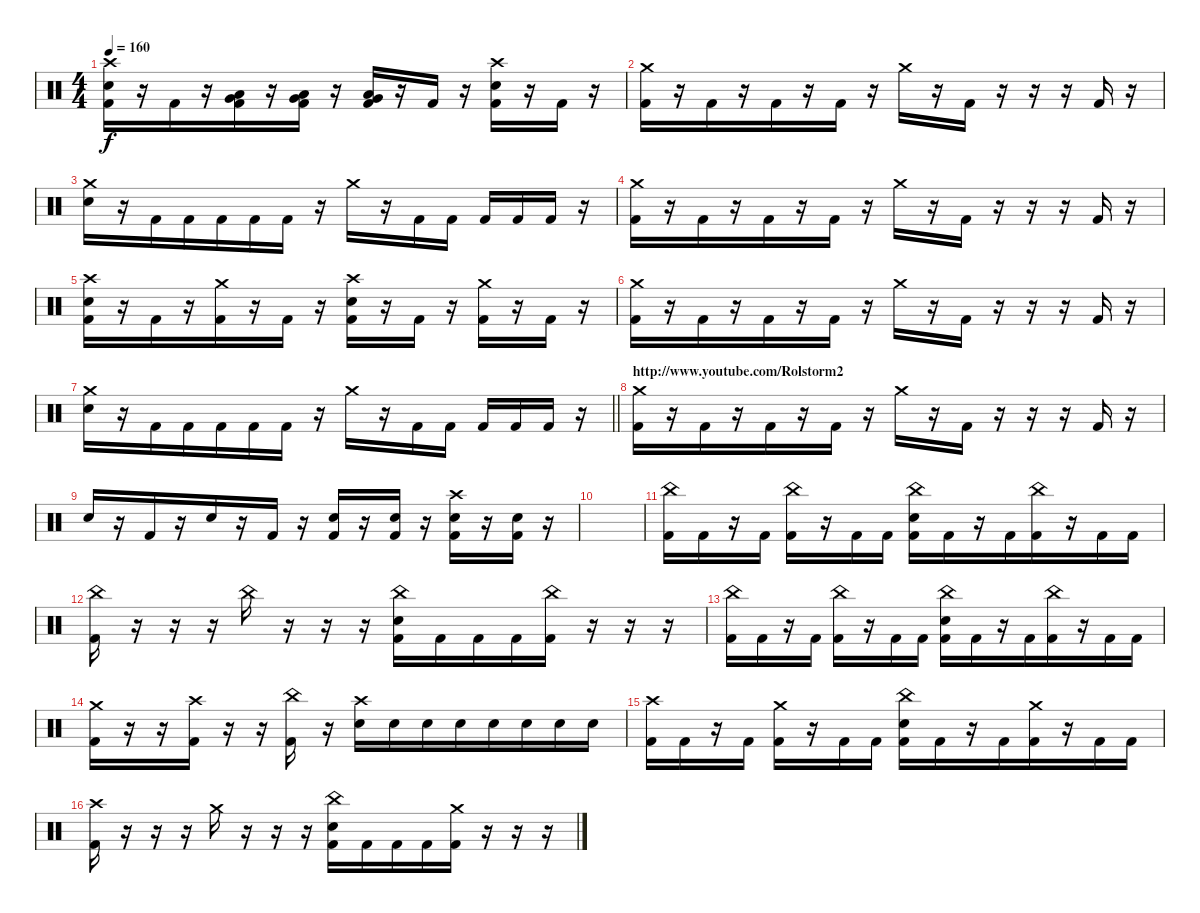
\track "" {instrument percussion}
\staff {score}
\articulation defaults
\ts (4 4)
\tempo 160
\clef neutral
\ks c
("Crash high (hit)" "Electric Snare (hit)" "Kick (hit) 2").16{dy f} r.16 "Kick (hit) 2".16{beam merge} r.16{beam merge} ("Very Low Tom (hit)" "Low Floor Tom (hit)" "Kick (hit) 2").16 r.16 ("Very Low Tom (hit)" "Low Floor Tom (hit)" "Kick (hit) 2").16 r.16 ("Very Low Tom (hit)" "Low Floor Tom (hit)" "Kick (hit) 2").16{beam merge} r.16 "Kick (hit) 2".16 r.16 ("Crash high (hit)" "Electric Snare (hit)" "Kick (hit) 2").16 r.16 "Kick (hit) 2".16 r.16 |
("Crash medium (hit)" "Kick (hit) 2").16 r.16 "Kick (hit) 2".16{beam merge} r.16{beam merge} "Kick (hit) 2".16 r.16 "Kick (hit) 2".16 r.16 "Crash medium (hit)".16{beam merge} r.16 "Kick (hit) 2".16 r.16 r.16 r.16 "Kick (hit) 2".16 r.16 |
("Crash medium (hit)" "Electric Snare (hit)").16 r.16 "Kick (hit) 2".16{beam merge} "Kick (hit) 2".16{beam merge} "Kick (hit) 2".16 "Kick (hit) 2".16 "Kick (hit) 2".16 r.16 "Crash medium (hit)".16{beam merge} r.16 "Kick (hit) 2".16 "Kick (hit) 2".16 "Kick (hit) 2".16 "Kick (hit) 2".16 "Kick (hit) 2".16 r.16 |
("Crash medium (hit)" "Kick (hit) 2").16 r.16 "Kick (hit) 2".16{beam merge} r.16{beam merge} "Kick (hit) 2".16 r.16 "Kick (hit) 2".16 r.16 "Crash medium (hit)".16{beam merge} r.16 "Kick (hit) 2".16 r.16 r.16 r.16 "Kick (hit) 2".16 r.16 |
("Crash high (hit)" "Electric Snare (hit)" "Kick (hit) 2").16 r.16 "Kick (hit) 2".16{beam merge} r.16{beam merge} ("Crash medium (hit)" "Kick (hit) 2").16 r.16 "Kick (hit) 2".16 r.16 ("Crash high (hit)" "Electric Snare (hit)" "Kick (hit) 2").16{beam merge} r.16 "Kick (hit) 2".16 r.16 ("Crash medium (hit)" "Kick (hit) 2").16 r.16 "Kick (hit) 2".16 r.16 |
("Crash medium (hit)" "Kick (hit) 2").16 r.16 "Kick (hit) 2".16{beam merge} r.16{beam merge} "Kick (hit) 2".16 r.16 "Kick (hit) 2".16 r.16 "Crash medium (hit)".16{beam merge} r.16 "Kick (hit) 2".16 r.16 r.16 r.16 "Kick (hit) 2".16 r.16 |
\barLineRight lightlight
("Crash medium (hit)" "Electric Snare (hit)").16 r.16 "Kick (hit) 2".16{beam merge} "Kick (hit) 2".16{beam merge} "Kick (hit) 2".16 "Kick (hit) 2".16 "Kick (hit) 2".16 r.16 "Crash medium (hit)".16{beam merge} r.16 "Kick (hit) 2".16 "Kick (hit) 2".16 "Kick (hit) 2".16 "Kick (hit) 2".16 "Kick (hit) 2".16 r.16 |
\section ("" "http://www.youtube.com/Rolstorm2")
("Crash medium (hit)" "Kick (hit) 2").16 r.16 "Kick (hit) 2".16{beam merge} r.16{beam merge} "Kick (hit) 2".16 r.16 "Kick (hit) 2".16 r.16 "Crash medium (hit)".16{beam merge} r.16 "Kick (hit) 2".16 r.16 r.16 r.16 "Kick (hit) 2".16 r.16 |
"Electric Snare (hit)".16 r.16 "Kick (hit) 2".16{beam merge} r.16{beam merge} "Electric Snare (hit)".16 r.16 "Kick (hit) 2".16 r.16 ("Electric Snare (hit)" "Kick (hit) 2").16{beam merge} r.16 ("Electric Snare (hit)" "Kick (hit) 2").16 r.16 ("Crash high (hit)" "Electric Snare (hit)" "Kick (hit) 2").16 r.16 ("Electric Snare (hit)" "Kick (hit) 2").16 r.16 |
|
("China (hit)" "Kick (hit) 2").16 "Kick (hit) 2".16 r.16 "Kick (hit) 2".16 ("China (hit)" "Kick (hit) 2").16 r.16{beam merge} "Kick (hit) 2".16 "Kick (hit) 2".16 ("China (hit)" "Electric Snare (hit)" "Kick (hit) 2").16 "Kick (hit) 2".16{beam merge} r.16 "Kick (hit) 2".16{beam merge} ("China (hit)" "Kick (hit) 2").16 r.16 "Kick (hit) 2".16 "Kick (hit) 2".16 |
("China (hit)" "Kick (hit) 2").16 r.16 r.16 r.16 "China (hit)".16 r.16{beam merge} r.16 r.16 ("China (hit)" "Electric Snare (hit)" "Kick (hit) 2").16 "Kick (hit) 2".16{beam merge} "Kick (hit) 2".16 "Kick (hit) 2".16{beam merge} ("China (hit)" "Kick (hit) 2").16 r.16 r.16 r.16 |
("China (hit)" "Kick (hit) 2").16 "Kick (hit) 2".16 r.16 "Kick (hit) 2".16 ("China (hit)" "Kick (hit) 2").16 r.16{beam merge} "Kick (hit) 2".16 "Kick (hit) 2".16 ("China (hit)" "Electric Snare (hit)" "Kick (hit) 2").16 "Kick (hit) 2".16{beam merge} r.16 "Kick (hit) 2".16{beam merge} ("China (hit)" "Kick (hit) 2").16 r.16 "Kick (hit) 2".16 "Kick (hit) 2".16 |
("Crash medium (hit)" "Kick (hit) 2").16 r.16 r.16 ("Crash high (hit)" "Kick (hit) 2").16 r.16 r.16{beam merge} ("China (hit)" "Kick (hit) 2").16 r.16 ("Crash high (hit)" "Electric Snare (hit)").16 "Electric Snare (hit)".16{beam merge} "Electric Snare (hit)".16 "Electric Snare (hit)".16{beam merge} "Electric Snare (hit)".16 "Electric Snare (hit)".16 "Electric Snare (hit)".16 "Electric Snare (hit)".16 |
("Crash high (hit)" "Kick (hit) 2").16 "Kick (hit) 2".16 r.16 "Kick (hit) 2".16 ("Crash medium (hit)" "Kick (hit) 2").16 r.16{beam merge} "Kick (hit) 2".16 "Kick (hit) 2".16 ("China (hit)" "Electric Snare (hit)" "Kick (hit) 2").16 "Kick (hit) 2".16{beam merge} r.16 "Kick (hit) 2".16{beam merge} ("Crash medium (hit)" "Kick (hit) 2").16 r.16 "Kick (hit) 2".16 "Kick (hit) 2".16 |
("Crash high (hit)" "Kick (hit) 2").16 r.16 r.16 r.16 "Crash medium (hit)".16 r.16{beam merge} r.16 r.16 ("China (hit)" "Electric Snare (hit)" "Kick (hit) 2").16 "Kick (hit) 2".16{beam merge} "Kick (hit) 2".16 "Kick (hit) 2".16{beam merge} ("Crash medium (hit)" "Kick (hit) 2").16 r.16 r.16 r.16
